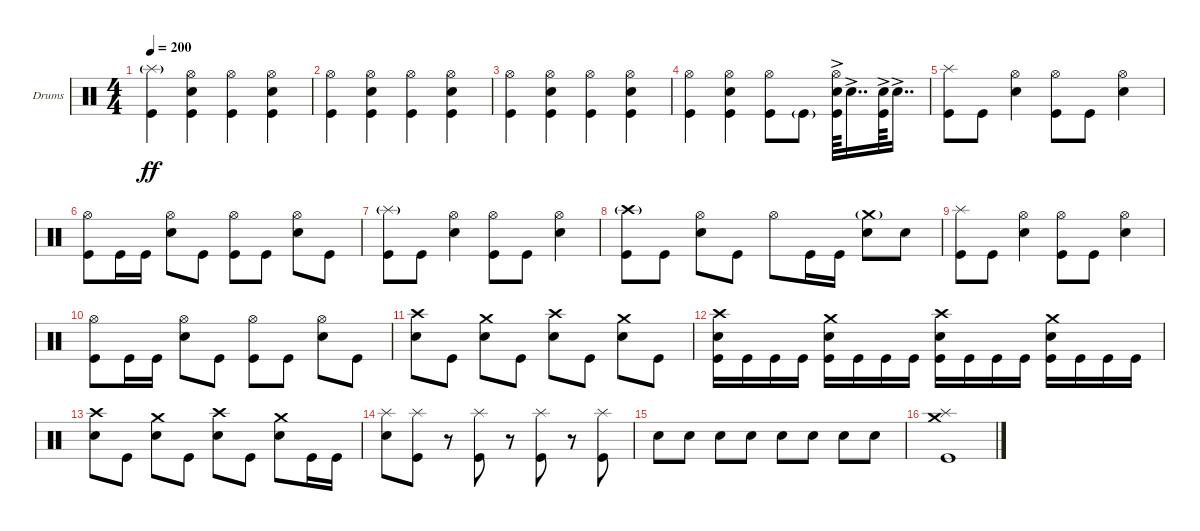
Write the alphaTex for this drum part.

\defaultSystemsLayout 4
\bracketExtendMode groupsimilarinstruments
\firstSystemTrackNameOrientation horizontal
\otherSystemsTrackNameOrientation horizontal
\track ("Drumkit" "Drums") {instrument percussion}
\staff {score}
\articulation defaults
\ts (4 4)
\tempo 200
\clef neutral
\ks c
("Kick (hit)" "Splash (hit)"{g}).4{dy ff} ("Kick (hit)" "Snare (hit) 2" "Hi-Hat (open)").4 ("Kick (hit)" "Hi-Hat (open)").4 ("Kick (hit)" "Snare (hit) 2" "Hi-Hat (open)").4 |
("Kick (hit)" "Hi-Hat (open)").4 ("Kick (hit)" "Snare (hit) 2" "Hi-Hat (open)").4 ("Kick (hit)" "Hi-Hat (open)").4 ("Kick (hit)" "Snare (hit) 2" "Hi-Hat (open)").4 |
("Kick (hit)" "Hi-Hat (open)").4 ("Kick (hit)" "Snare (hit) 2" "Hi-Hat (open)").4 ("Kick (hit)" "Hi-Hat (open)").4 ("Kick (hit)" "Snare (hit) 2" "Hi-Hat (open)").4 |
("Kick (hit)" "Hi-Hat (open)").4 ("Kick (hit)" "Snare (hit) 2" "Hi-Hat (open)").4 ("Kick (hit)" "Hi-Hat (open)").8 "Kick (hit)"{g}.8 ("Kick (hit)" "Snare (hit) 2"{ac} "Hi-Hat (open)").64 "Snare (hit) 2"{ac}.16{dd} ("Kick (hit)" "Snare (hit) 2"{ac}).64 "Snare (hit) 2"{ac}.16{dd} |
("Kick (hit)" "Splash (hit)").8 "Kick (hit)".8 ("Snare (hit) 2" "Hi-Hat (open)").4 ("Kick (hit)" "Hi-Hat (open)").8 "Kick (hit)".8 ("Snare (hit) 2" "Hi-Hat (open)").4 |
("Kick (hit)" "Hi-Hat (open)").8 "Kick (hit)".16 "Kick (hit)".16 ("Snare (hit) 2" "Hi-Hat (open)").8 "Kick (hit)".8 ("Kick (hit)" "Hi-Hat (open)").8 "Kick (hit)".8 ("Snare (hit) 2" "Hi-Hat (open)").8 "Kick (hit)".8 |
("Kick (hit)" "Splash (hit)"{g}).8 "Kick (hit)".8 ("Snare (hit) 2" "Hi-Hat (open)").4 ("Kick (hit)" "Hi-Hat (open)").8 "Kick (hit)".8 ("Snare (hit) 2" "Hi-Hat (open)").4 |
("Kick (hit)" "Crash high (hit)"{g}).8 "Kick (hit)".8 ("Snare (hit) 2" "Hi-Hat (open)").8 "Kick (hit)".8 "Hi-Hat (open)".8 "Kick (hit)".16 "Kick (hit)".16 ("Snare (hit) 2" "Crash medium (hit)"{g}).8 "Snare (hit) 2".8 |
("Kick (hit)" "Splash (hit)").8 "Kick (hit)".8 ("Snare (hit) 2" "Hi-Hat (open)").4 ("Kick (hit)" "Hi-Hat (open)").8 "Kick (hit)".8 ("Snare (hit) 2" "Hi-Hat (open)").4 |
("Kick (hit)" "Hi-Hat (open)").8 "Kick (hit)".16 "Kick (hit)".16 ("Snare (hit) 2" "Hi-Hat (open)").8 "Kick (hit)".8 ("Kick (hit)" "Hi-Hat (open)").8 "Kick (hit)".8 ("Snare (hit) 2" "Hi-Hat (open)").8 "Kick (hit)".8 |
("Snare (hit) 2" "Crash high (hit)").8 "Kick (hit)".8 ("Snare (hit) 2" "Crash medium (hit)").8 "Kick (hit)".8 ("Snare (hit) 2" "Crash high (hit)").8 "Kick (hit)".8 ("Snare (hit) 2" "Crash medium (hit)").8 "Kick (hit)".8 |
("Snare (hit) 2" "Kick (hit)" "Crash high (hit)").16 "Kick (hit)".16 "Kick (hit)".16 "Kick (hit)".16 ("Kick (hit)" "Snare (hit) 2" "Crash medium (hit)").16 "Kick (hit)".16 "Kick (hit)".16 "Kick (hit)".16 ("Kick (hit)" "Snare (hit) 2" "Crash high (hit)").16 "Kick (hit)".16 "Kick (hit)".16 "Kick (hit)".16 ("Kick (hit)" "Snare (hit) 2" "Crash medium (hit)").16 "Kick (hit)".16 "Kick (hit)".16 "Kick (hit)".16 |
("Snare (hit) 2" "Crash high (hit)").8 "Kick (hit)".8 ("Snare (hit) 2" "Crash medium (hit)").8 "Kick (hit)".8 ("Snare (hit) 2" "Crash high (hit)").8 "Kick (hit)".8 ("Snare (hit) 2" "Crash medium (hit)").8 "Kick (hit)".16 "Kick (hit)".16 |
("Snare (hit) 2" "Splash (hit)").8 ("Kick (hit)" "Splash (hit)").8 r.8 ("Kick (hit)" "Splash (hit)").8 r.8 ("Kick (hit)" "Splash (hit)").8 r.8 ("Kick (hit)" "Splash (hit)").8 |
"Snare (hit) 2".8 "Snare (hit) 2".8 "Snare (hit) 2".8 "Snare (hit) 2".8 "Snare (hit) 2".8 "Snare (hit) 2".8 "Snare (hit) 2".8 "Snare (hit) 2".8 |
("Kick (hit)" "Crash medium (hit)" "Splash (hit)").1
